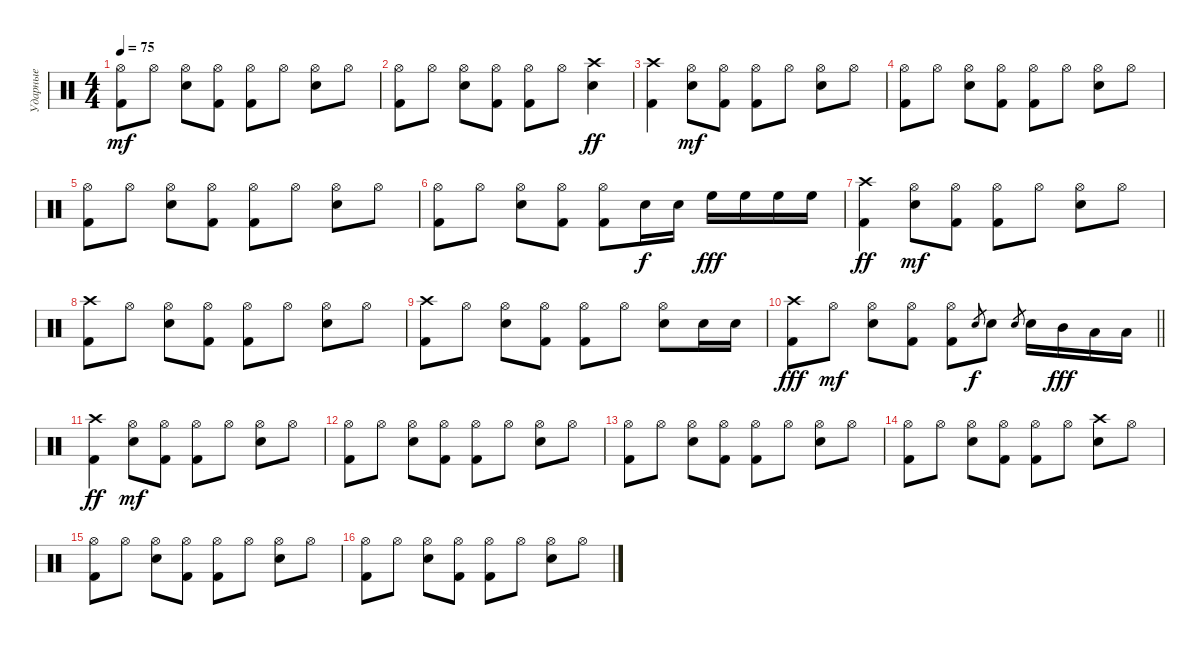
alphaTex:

\track ("Ударные" "Ударные") {instrument percussion}
\staff {score}
\articulation defaults
\ts (4 4)
\tempo 75
\clef neutral
\ks c
("Kick (hit) 2" "Hi-Hat (open)").8{dy mf} "Hi-Hat (open)".8 ("Snare (hit) 2" "Hi-Hat (open)").8 ("Kick (hit) 2" "Hi-Hat (open)").8 ("Kick (hit) 2" "Hi-Hat (open)").8 "Hi-Hat (open)".8 ("Snare (hit) 2" "Hi-Hat (open)").8 "Hi-Hat (open)".8 |
("Kick (hit) 2" "Hi-Hat (open)").8 "Hi-Hat (open)".8 ("Snare (hit) 2" "Hi-Hat (open)").8 ("Kick (hit) 2" "Hi-Hat (open)").8 ("Kick (hit) 2" "Hi-Hat (open)").8 "Hi-Hat (open)".8 ("Snare (hit) 2" "Crash high (hit)").4{dy ff} |
("Kick (hit) 2" "Crash high (hit)").4 ("Snare (hit) 2" "Hi-Hat (open)").8{dy mf} ("Kick (hit) 2" "Hi-Hat (open)").8 ("Kick (hit) 2" "Hi-Hat (open)").8 "Hi-Hat (open)".8 ("Snare (hit) 2" "Hi-Hat (open)").8 "Hi-Hat (open)".8 |
("Kick (hit) 2" "Hi-Hat (open)").8 "Hi-Hat (open)".8 ("Snare (hit) 2" "Hi-Hat (open)").8 ("Kick (hit) 2" "Hi-Hat (open)").8 ("Kick (hit) 2" "Hi-Hat (open)").8 "Hi-Hat (open)".8 ("Snare (hit) 2" "Hi-Hat (open)").8 "Hi-Hat (open)".8 |
("Kick (hit) 2" "Hi-Hat (open)").8 "Hi-Hat (open)".8 ("Snare (hit) 2" "Hi-Hat (open)").8 ("Kick (hit) 2" "Hi-Hat (open)").8 ("Kick (hit) 2" "Hi-Hat (open)").8 "Hi-Hat (open)".8 ("Snare (hit) 2" "Hi-Hat (open)").8 "Hi-Hat (open)".8 |
("Kick (hit) 2" "Hi-Hat (open)").8 "Hi-Hat (open)".8 ("Snare (hit) 2" "Hi-Hat (open)").8 ("Kick (hit) 2" "Hi-Hat (open)").8 ("Kick (hit) 2" "Hi-Hat (open)").8 "Electric Snare (hit)".16{dy f} "Electric Snare (hit)".16 "High Floor Tom (hit)".16{dy fff} "High Floor Tom (hit)".16 "High Floor Tom (hit)".16 "High Floor Tom (hit)".16 |
("Kick (hit) 2" "Crash high (hit)").4{dy ff} ("Snare (hit) 2" "Hi-Hat (open)").8{dy mf} ("Kick (hit) 2" "Hi-Hat (open)").8 ("Kick (hit) 2" "Hi-Hat (open)").8 "Hi-Hat (open)".8 ("Snare (hit) 2" "Hi-Hat (open)").8 "Hi-Hat (open)".8 |
("Kick (hit) 2" "Crash high (hit)").8 "Hi-Hat (open)".8 ("Snare (hit) 2" "Hi-Hat (open)").8 ("Kick (hit) 2" "Hi-Hat (open)").8 ("Kick (hit) 2" "Hi-Hat (open)").8 "Hi-Hat (open)".8 ("Snare (hit) 2" "Hi-Hat (open)").8 "Hi-Hat (open)".8 |
("Kick (hit) 2" "Crash high (hit)").8 "Hi-Hat (open)".8 ("Snare (hit) 2" "Hi-Hat (open)").8 ("Kick (hit) 2" "Hi-Hat (open)").8 ("Kick (hit) 2" "Hi-Hat (open)").8 "Hi-Hat (open)".8 ("Snare (hit) 2" "Hi-Hat (open)").8 "Snare (hit) 2".16 "Snare (hit) 2".16 |
\barLineRight lightlight
("Kick (hit) 2" "Crash high (hit)").8{dy fff} "Hi-Hat (open)".8{dy mf} ("Snare (hit) 2" "Hi-Hat (open)").8 ("Kick (hit) 2" "Hi-Hat (open)").8 ("Kick (hit) 2" "Hi-Hat (open)").8 "Snare (hit) 2".8{gr dy f} "Snare (hit) 2".8 "Snare (hit) 2".8{gr} "Snare (hit) 2".16 "Mid Tom (hit)".16{dy fff} "Low Tom (hit)".16 "Low Tom (hit)".16 |
("Kick (hit) 2" "Crash high (hit)").4{dy ff} ("Snare (hit) 2" "Hi-Hat (open)").8{dy mf} ("Kick (hit) 2" "Hi-Hat (open)").8 ("Kick (hit) 2" "Hi-Hat (open)").8 "Hi-Hat (open)".8 ("Snare (hit) 2" "Hi-Hat (open)").8 "Hi-Hat (open)".8 |
("Kick (hit) 2" "Hi-Hat (open)").8 "Hi-Hat (open)".8 ("Snare (hit) 2" "Hi-Hat (open)").8 ("Kick (hit) 2" "Hi-Hat (open)").8 ("Kick (hit) 2" "Hi-Hat (open)").8 "Hi-Hat (open)".8 ("Snare (hit) 2" "Hi-Hat (open)").8 "Hi-Hat (open)".8 |
("Kick (hit) 2" "Hi-Hat (open)").8 "Hi-Hat (open)".8 ("Snare (hit) 2" "Hi-Hat (open)").8 ("Kick (hit) 2" "Hi-Hat (open)").8 ("Kick (hit) 2" "Hi-Hat (open)").8 "Hi-Hat (open)".8 ("Snare (hit) 2" "Hi-Hat (open)").8 "Hi-Hat (open)".8 |
("Kick (hit) 2" "Hi-Hat (open)").8 "Hi-Hat (open)".8 ("Snare (hit) 2" "Hi-Hat (open)").8 ("Kick (hit) 2" "Hi-Hat (open)").8 ("Kick (hit) 2" "Hi-Hat (open)").8 "Hi-Hat (open)".8 ("Snare (hit) 2" "Crash high (hit)").8 "Hi-Hat (open)".8 |
("Kick (hit) 2" "Hi-Hat (open)").8 "Hi-Hat (open)".8 ("Snare (hit) 2" "Hi-Hat (open)").8 ("Kick (hit) 2" "Hi-Hat (open)").8 ("Kick (hit) 2" "Hi-Hat (open)").8 "Hi-Hat (open)".8 ("Snare (hit) 2" "Hi-Hat (open)").8 "Hi-Hat (open)".8 |
("Kick (hit) 2" "Hi-Hat (open)").8 "Hi-Hat (open)".8 ("Snare (hit) 2" "Hi-Hat (open)").8 ("Kick (hit) 2" "Hi-Hat (open)").8 ("Kick (hit) 2" "Hi-Hat (open)").8 "Hi-Hat (open)".8 ("Snare (hit) 2" "Hi-Hat (open)").8 "Hi-Hat (open)".8
